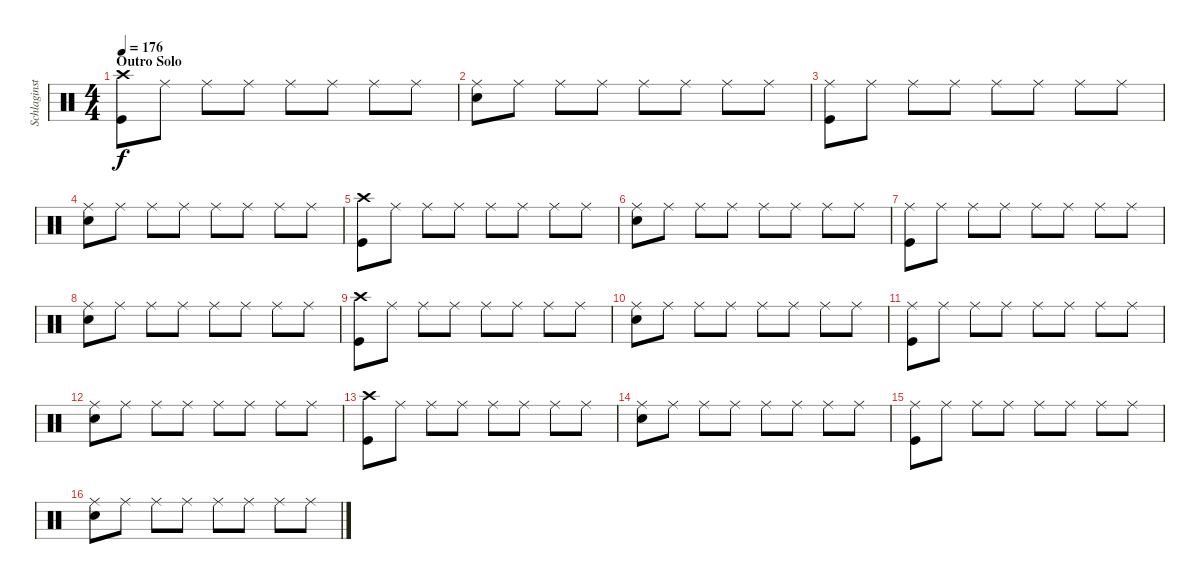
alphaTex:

\track ("Schlaginstrumente - Auswahl" "Schlaginst") {instrument percussion}
\staff {score}
\articulation defaults
\ts (4 4)
\section ("" "Outro Solo")
\tempo 176
\clef neutral
\ks c
("Kick (hit)" "Crash high (hit)").8{dy f} "Ride (middle)".8 "Ride (middle)".8 "Ride (middle)".8 "Ride (middle)".8 "Ride (middle)".8 "Ride (middle)".8 "Ride (middle)".8 |
("Snare (hit) 2" "Ride (middle)").8 "Ride (middle)".8 "Ride (middle)".8 "Ride (middle)".8 "Ride (middle)".8 "Ride (middle)".8 "Ride (middle)".8 "Ride (middle)".8 |
("Kick (hit)" "Ride (middle)").8 "Ride (middle)".8 "Ride (middle)".8 "Ride (middle)".8 "Ride (middle)".8 "Ride (middle)".8 "Ride (middle)".8 "Ride (middle)".8 |
("Snare (hit) 2" "Ride (middle)").8 "Ride (middle)".8 "Ride (middle)".8 "Ride (middle)".8 "Ride (middle)".8 "Ride (middle)".8 "Ride (middle)".8 "Ride (middle)".8 |
("Kick (hit)" "Crash high (hit)").8 "Ride (middle)".8 "Ride (middle)".8 "Ride (middle)".8 "Ride (middle)".8 "Ride (middle)".8 "Ride (middle)".8 "Ride (middle)".8 |
("Snare (hit) 2" "Ride (middle)").8 "Ride (middle)".8 "Ride (middle)".8 "Ride (middle)".8 "Ride (middle)".8 "Ride (middle)".8 "Ride (middle)".8 "Ride (middle)".8 |
("Kick (hit)" "Ride (middle)").8 "Ride (middle)".8 "Ride (middle)".8 "Ride (middle)".8 "Ride (middle)".8 "Ride (middle)".8 "Ride (middle)".8 "Ride (middle)".8 |
("Snare (hit) 2" "Ride (middle)").8 "Ride (middle)".8 "Ride (middle)".8 "Ride (middle)".8 "Ride (middle)".8 "Ride (middle)".8 "Ride (middle)".8 "Ride (middle)".8 |
("Kick (hit)" "Crash high (hit)").8 "Ride (middle)".8 "Ride (middle)".8 "Ride (middle)".8 "Ride (middle)".8 "Ride (middle)".8 "Ride (middle)".8 "Ride (middle)".8 |
("Snare (hit) 2" "Ride (middle)").8 "Ride (middle)".8 "Ride (middle)".8 "Ride (middle)".8 "Ride (middle)".8 "Ride (middle)".8 "Ride (middle)".8 "Ride (middle)".8 |
("Kick (hit)" "Ride (middle)").8 "Ride (middle)".8 "Ride (middle)".8 "Ride (middle)".8 "Ride (middle)".8 "Ride (middle)".8 "Ride (middle)".8 "Ride (middle)".8 |
("Snare (hit) 2" "Ride (middle)").8 "Ride (middle)".8 "Ride (middle)".8 "Ride (middle)".8 "Ride (middle)".8 "Ride (middle)".8 "Ride (middle)".8 "Ride (middle)".8 |
("Kick (hit)" "Crash high (hit)").8{volume 6} "Ride (middle)".8 "Ride (middle)".8 "Ride (middle)".8 "Ride (middle)".8 "Ride (middle)".8 "Ride (middle)".8 "Ride (middle)".8 |
("Snare (hit) 2" "Ride (middle)").8 "Ride (middle)".8 "Ride (middle)".8 "Ride (middle)".8 "Ride (middle)".8 "Ride (middle)".8 "Ride (middle)".8 "Ride (middle)".8 |
("Kick (hit)" "Ride (middle)").8 "Ride (middle)".8 "Ride (middle)".8 "Ride (middle)".8 "Ride (middle)".8 "Ride (middle)".8 "Ride (middle)".8 "Ride (middle)".8 |
("Snare (hit) 2" "Ride (middle)").8 "Ride (middle)".8 "Ride (middle)".8 "Ride (middle)".8 "Ride (middle)".8 "Ride (middle)".8 "Ride (middle)".8 "Ride (middle)".8
